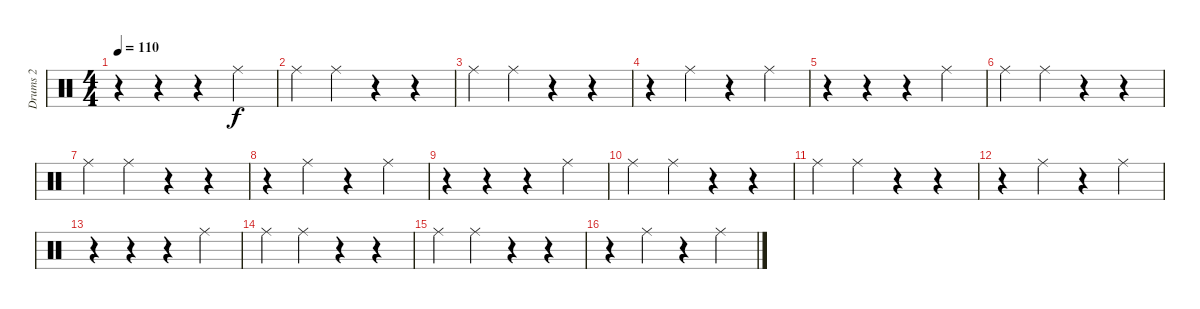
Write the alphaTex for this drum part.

\track ("Drums 2" "Drums 2") {instrument percussion}
\staff {score}
\articulation defaults
\ts (4 4)
\tempo 110
\clef neutral
\ks c
r.4{dy f} r.4 r.4 "Ride (middle)".4 |
"Ride (middle)".4 "Ride (middle)".4 r.4 r.4 |
"Ride (middle)".4 "Ride (middle)".4 r.4 r.4 |
r.4 "Ride (middle)".4 r.4 "Ride (middle)".4 |
r.4 r.4 r.4 "Ride (middle)".4 |
"Ride (middle)".4 "Ride (middle)".4 r.4 r.4 |
"Ride (middle)".4 "Ride (middle)".4 r.4 r.4 |
r.4 "Ride (middle)".4 r.4 "Ride (middle)".4 |
r.4 r.4 r.4 "Ride (middle)".4 |
"Ride (middle)".4 "Ride (middle)".4 r.4 r.4 |
"Ride (middle)".4 "Ride (middle)".4 r.4 r.4 |
r.4 "Ride (middle)".4 r.4 "Ride (middle)".4 |
r.4 r.4 r.4 "Ride (middle)".4 |
"Ride (middle)".4 "Ride (middle)".4 r.4 r.4 |
"Ride (middle)".4 "Ride (middle)".4 r.4 r.4 |
r.4 "Ride (middle)".4 r.4 "Ride (middle)".4
